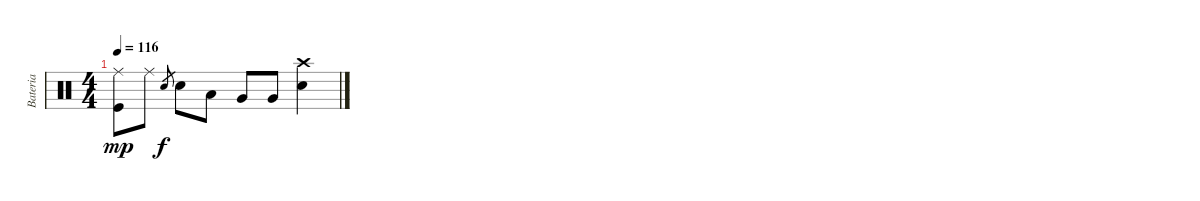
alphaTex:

\track ("Bateria" "Bateria") {instrument percussion}
\staff {score}
\articulation defaults
\ts (4 4)
\tempo 116
\clef neutral
\ks c
("Ride (middle)" "Kick (hit)").8{dy mp} "Ride (middle)".8 "Snare (hit) 2".8{gr dy f} "Snare (hit) 2".8 "Low Tom (hit)".8 "Very Low Tom (hit)".8 "Very Low Tom (hit)".8 ("Snare (hit) 2" "Crash high (hit)").4
